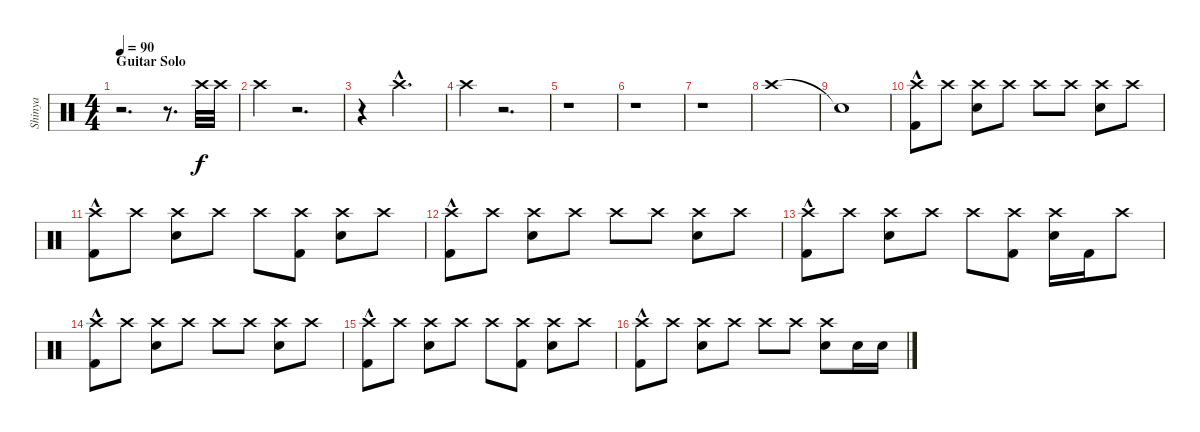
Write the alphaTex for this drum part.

\track ("Shinya" "Shinya") {instrument percussion}
\staff {score}
\articulation defaults
\ts (4 4)
\section ("" "Guitar Solo")
\tempo 90
\clef neutral
\ks c
r.2{d dy f} r.8{d} "Crash high (hit)".32 "Crash high (hit)".32 |
"Crash high (hit)".4 r.2{d} |
r.4 "Crash high (hit)"{hac}.2{d} |
"Crash high (hit)".4 r.2{d} |
r.1 |
r.1 |
r.1 |
"Crash high (hit)".1 |
"Snare (hit)"{t}.1 |
("Kick (hit) 2"{hac} "Crash high (hit)").8 "Crash high (hit)".8 ("Crash high (hit)" "Snare (hit) 2").8 "Crash high (hit)".8 "Crash high (hit)".8 "Crash high (hit)".8 ("Crash high (hit)" "Snare (hit) 2").8 "Crash high (hit)".8 |
("Kick (hit) 2"{hac} "Crash high (hit)").8 "Crash high (hit)".8 ("Crash high (hit)" "Snare (hit) 2").8 "Crash high (hit)".8 "Crash high (hit)".8 ("Crash high (hit)" "Kick (hit) 2").8 ("Crash high (hit)" "Snare (hit) 2").8 "Crash high (hit)".8 |
("Crash high (hit)" "Kick (hit) 2"{hac}).8 "Crash high (hit)".8 ("Crash high (hit)" "Snare (hit) 2").8 "Crash high (hit)".8 "Crash high (hit)".8 "Crash high (hit)".8 ("Crash high (hit)" "Snare (hit) 2").8 "Crash high (hit)".8 |
("Kick (hit) 2"{hac} "Crash high (hit)").8 "Crash high (hit)".8 ("Crash high (hit)" "Snare (hit) 2").8 "Crash high (hit)".8 "Crash high (hit)".8 ("Crash high (hit)" "Kick (hit) 2").8 ("Crash high (hit)" "Snare (hit) 2").16 "Kick (hit) 2".16 "Crash high (hit)".8 |
("Kick (hit) 2"{hac} "Crash high (hit)").8 "Crash high (hit)".8 ("Crash high (hit)" "Snare (hit) 2").8 "Crash high (hit)".8 "Crash high (hit)".8 "Crash high (hit)".8 ("Crash high (hit)" "Snare (hit) 2").8 "Crash high (hit)".8 |
("Kick (hit) 2"{hac} "Crash high (hit)").8 "Crash high (hit)".8 ("Crash high (hit)" "Snare (hit) 2").8 "Crash high (hit)".8 "Crash high (hit)".8 ("Crash high (hit)" "Kick (hit) 2").8 ("Crash high (hit)" "Snare (hit) 2").8 "Crash high (hit)".8 |
("Kick (hit) 2"{hac} "Crash high (hit)").8 "Crash high (hit)".8 ("Crash high (hit)" "Snare (hit) 2").8 "Crash high (hit)".8 "Crash high (hit)".8 "Crash high (hit)".8 ("Crash high (hit)" "Snare (hit) 2").8 "Snare (hit) 2".16 "Snare (hit) 2".16
